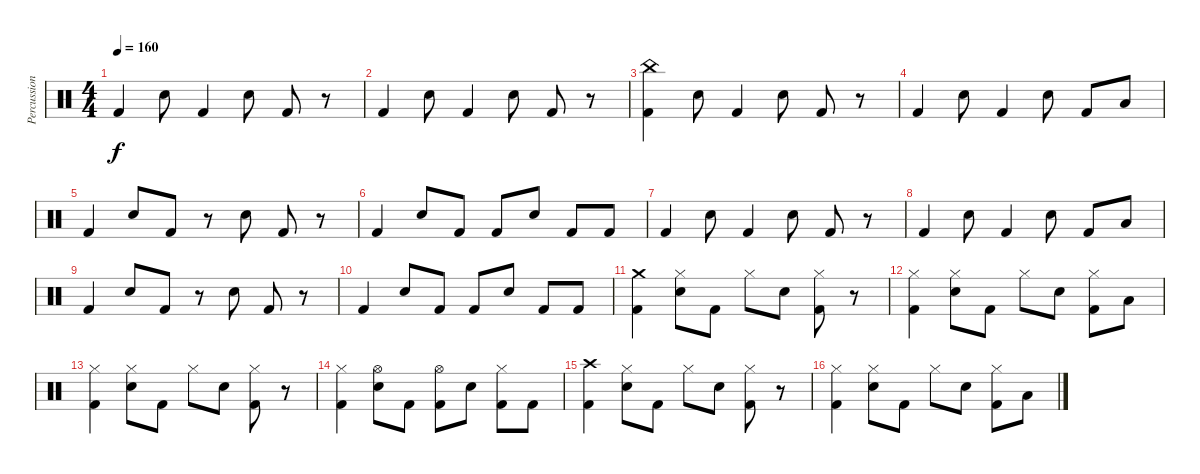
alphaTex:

\track ("Percussions" "Percussion") {instrument percussion}
\staff {score}
\articulation defaults
\ts (4 4)
\tempo 160
\clef neutral
\ks c "Kick (hit) 2".4{dy f} "Snare (hit) 2".8 "Kick (hit) 2".4 "Snare (hit) 2".8 "Kick (hit) 2".8
r.8 |
"Kick (hit) 2".4 "Snare (hit) 2".8 "Kick (hit) 2".4 "Snare (hit) 2".8 "Kick (hit) 2".8 r.8 |
("China (hit)" "Kick (hit) 2").4 "Snare (hit) 2".8 "Kick (hit) 2".4 "Snare (hit) 2".8 "Kick (hit) 2".8 r.8 |
"Kick (hit) 2".4 "Snare (hit) 2".8 "Kick (hit) 2".4 "Snare (hit) 2".8 "Kick (hit) 2".8 "Low Tom (hit)".8 |
"Kick (hit) 2".4 "Snare (hit) 2".8 "Kick (hit) 2".8 r.8 "Snare (hit) 2".8 "Kick (hit) 2".8 r.8 |
"Kick (hit) 2".4 "Snare (hit) 2".8 "Kick (hit) 2".8 "Kick (hit) 2".8 "Snare (hit) 2".8 "Kick (hit) 2".8 "Kick (hit) 2".8 |
"Kick (hit) 2".4 "Snare (hit) 2".8 "Kick (hit) 2".4 "Snare (hit) 2".8 "Kick (hit) 2".8 r.8 |
"Kick (hit) 2".4 "Snare (hit) 2".8 "Kick (hit) 2".4 "Snare (hit) 2".8 "Kick (hit) 2".8 "Low Tom (hit)".8 |
"Kick (hit) 2".4 "Snare (hit) 2".8 "Kick (hit) 2".8 r.8 "Snare (hit) 2".8 "Kick (hit) 2".8 r.8 |
"Kick (hit) 2".4 "Snare (hit) 2".8 "Kick (hit) 2".8 "Kick (hit) 2".8 "Snare (hit) 2".8 "Kick (hit) 2".8 "Kick (hit) 2".8 |
("Crash medium (hit)" "Kick (hit) 2").4 ("Hi-Hat (closed)" "Snare (hit) 2").8 "Kick (hit) 2".8 "Hi-Hat (closed)".8 "Snare (hit) 2".8 ("Hi-Hat (closed)" "Kick (hit) 2").8 r.8 |
("Hi-Hat (closed)" "Kick (hit) 2").4 ("Hi-Hat (closed)" "Snare (hit) 2").8 "Kick (hit) 2".8 "Hi-Hat (closed)".8 "Snare (hit) 2".8 ("Hi-Hat (closed)" "Kick (hit) 2").8 "Low Tom (hit)".8 |
("Hi-Hat (closed)" "Kick (hit) 2").4 ("Hi-Hat (closed)" "Snare (hit) 2").8 "Kick (hit) 2".8 "Hi-Hat (closed)".8 "Snare (hit) 2".8 ("Hi-Hat (closed)" "Kick (hit) 2").8 r.8 |
("Hi-Hat (closed)" "Kick (hit) 2").4 ("Hi-Hat (open)" "Snare (hit) 2").8 "Kick (hit) 2".8 ("Hi-Hat (open)" "Kick (hit) 2").8 "Snare (hit) 2".8 ("Hi-Hat (closed)" "Kick (hit) 2").8 "Kick (hit) 2".8 |
("Crash high (hit)" "Kick (hit) 2").4 ("Hi-Hat (closed)" "Snare (hit) 2").8 "Kick (hit) 2".8 "Hi-Hat (closed)".8 "Snare (hit) 2".8 ("Hi-Hat (closed)" "Kick (hit) 2").8 r.8 |
("Hi-Hat (closed)" "Kick (hit) 2").4 ("Hi-Hat (closed)" "Snare (hit) 2").8 "Kick (hit) 2".8 "Hi-Hat (closed)".8 "Snare (hit) 2".8 ("Hi-Hat (closed)" "Kick (hit) 2").8 "Low Tom (hit)".8
